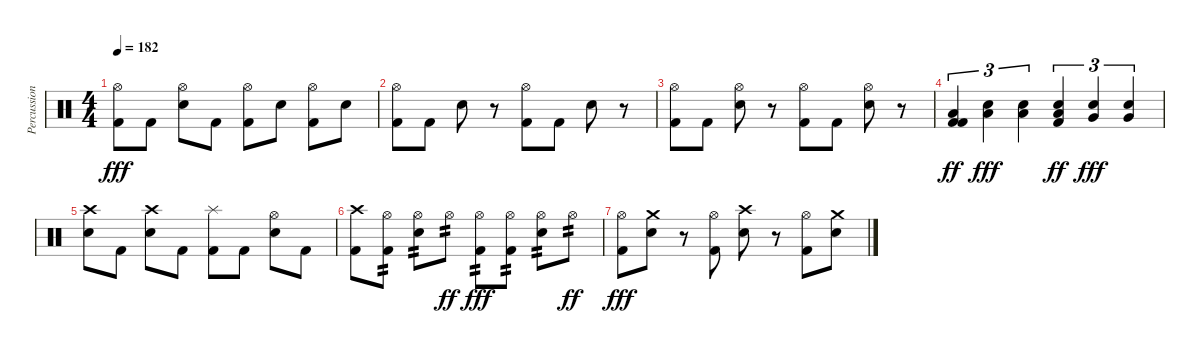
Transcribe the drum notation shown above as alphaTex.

\track ("Percussion" "Percussion") {instrument percussion}
\staff {score}
\articulation defaults
\ts (4 4)
\tempo 182
\clef neutral
\ks c
("Hi-Hat (open)" "Kick (hit) 2").8{dy fff} "Kick (hit) 2".8 ("Hi-Hat (open)" "Snare (hit) 2").8 "Kick (hit) 2".8 ("Hi-Hat (open)" "Kick (hit) 2").8 "Snare (hit) 2".8 ("Hi-Hat (open)" "Kick (hit) 2").8 "Snare (hit) 2".8 |
("Hi-Hat (open)" "Kick (hit) 2").8 "Kick (hit) 2".8 "Snare (hit) 2".8 r.8 ("Hi-Hat (open)" "Kick (hit) 2").8 "Kick (hit) 2".8 "Snare (hit) 2".8 r.8 |
("Hi-Hat (open)" "Kick (hit) 2").8 "Kick (hit) 2".8 ("Hi-Hat (open)" "Snare (hit) 2").8 r.8 ("Hi-Hat (open)" "Kick (hit) 2").8 "Kick (hit) 2".8 ("Hi-Hat (open)" "Snare (hit) 2").8 r.8 |
("Low Floor Tom (hit)" "Kick (hit) 2" "Kick (hit) 2").4{tu (3 2) dy ff} ("Low Tom (hit)" "Snare (hit) 2").4{tu (3 2) dy fff} ("Low Tom (hit)" "Snare (hit) 2").4{tu (3 2)} ("Low Floor Tom (hit)" "Snare (hit) 2" "Kick (hit) 2").4{tu (3 2) dy ff} ("Very Low Tom (hit)" "Snare (hit) 2").4{tu (3 2) dy fff} ("Very Low Tom (hit)" "Snare (hit) 2").4{tu (3 2)} |
("Crash high (hit)" "Snare (hit) 2").8 "Kick (hit) 2".8 ("Crash high (hit)" "Snare (hit) 2").8 "Kick (hit) 2".8 ("Splash (hit)" "Kick (hit) 2").8 "Kick (hit) 2".8 ("Hi-Hat (open)" "Snare (hit) 2").8 "Kick (hit) 2".8 |
("Crash high (hit)" "Kick (hit) 2").8 ("Hi-Hat (open)" "Kick (hit) 2").8{tp 2} ("Hi-Hat (open)" "Snare (hit) 2").8{tp 2} "Hi-Hat (open)".8{tp 2 dy ff} ("Hi-Hat (open)" "Kick (hit) 2").8{tp 2 dy fff} ("Hi-Hat (open)" "Kick (hit) 2").8{tp 2} ("Hi-Hat (open)" "Snare (hit) 2").8{tp 2} "Hi-Hat (open)".8{tp 2 dy ff} |
("Hi-Hat (open)" "Kick (hit) 2").8{dy fff} ("Crash medium (hit)" "Snare (hit) 2").8 r.8 ("Hi-Hat (open)" "Kick (hit) 2").8 ("Crash high (hit)" "Snare (hit) 2").8 r.8 ("Hi-Hat (open)" "Kick (hit) 2").8 ("Crash medium (hit)" "Snare (hit) 2").8
